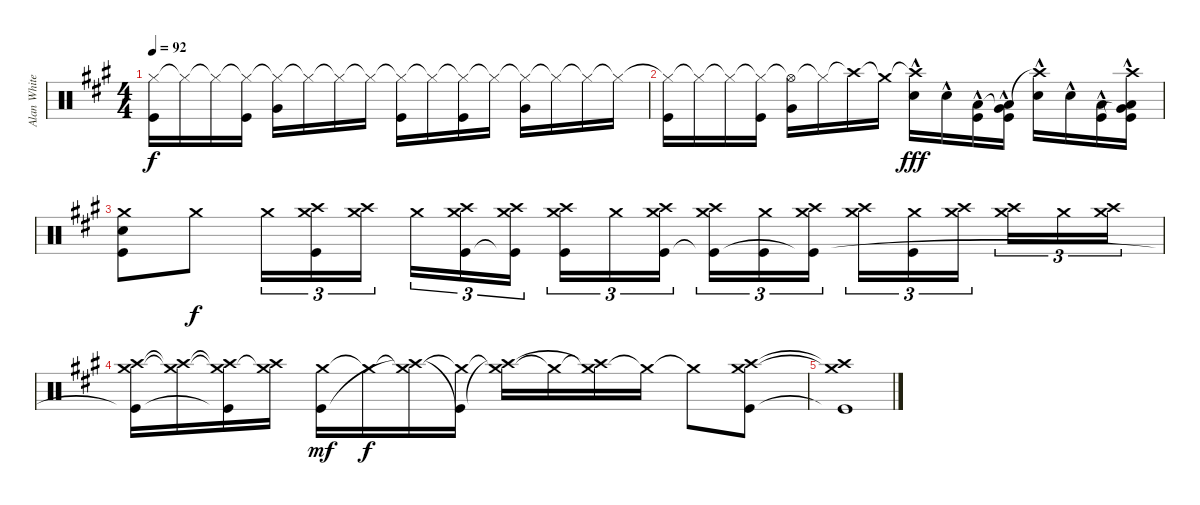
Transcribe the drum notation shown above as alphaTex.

\track ("Alan White" "Alan White") {instrument percussion}
\staff {score}
\articulation defaults
\ts (4 4)
\tempo 92
\clef neutral
\ks a
("Hi-Hat (closed)"{t} "Kick (hit)").16{dy f} "Hi-Hat (closed)"{t}.16 "Hi-Hat (closed)"{t}.16 ("Hi-Hat (closed)"{t} "Kick (hit)").16 ("Hi-Hat (closed)"{t} "Very Low Tom (hit)").16 "Hi-Hat (closed)"{t}.16 "Hi-Hat (closed)"{t}.16 "Hi-Hat (closed)"{t}.16 ("Hi-Hat (closed)"{t} "Kick (hit)").16 "Hi-Hat (closed)"{t}.16 ("Hi-Hat (closed)"{t} "Kick (hit)").16 "Hi-Hat (closed)"{t}.16 ("Hi-Hat (closed)"{t} "Very Low Tom (hit)").16 "Hi-Hat (closed)"{t}.16 "Hi-Hat (closed)"{t}.16 "Hi-Hat (closed)"{t}.16 |
("Hi-Hat (closed)"{t} "Kick (hit)").16 "Hi-Hat (closed)"{t}.16 "Hi-Hat (closed)"{t}.16 ("Hi-Hat (closed)"{t} "Kick (hit)").16 ("Hi-Hat (open)"{t} "Very Low Tom (hit)").16 "Hi-Hat (closed)"{t}.16 "Crash high (hit)"{t}.16 "Crash medium (hit)"{t}.16 ("Crash high (hit)"{t} "Snare (hit) 2"{hac}).16{dy fff} "Snare (hit) 2"{hac}.16 ("Low Floor Tom (hit)" "Kick (hit)"{hac}).16 ("Very Low Tom (hit)"{t} "Low Floor Tom (hit)" "Kick (hit)"{hac}).16 ("Crash high (hit)"{t} "Snare (hit) 2"{hac}).16 "Snare (hit) 2"{hac}.16 ("Low Floor Tom (hit)" "Kick (hit)"{hac}).16 ("Crash high (hit)" "Very Low Tom (hit)"{t} "Low Floor Tom (hit)" "Kick (hit)"{hac}).16 |
("Crash medium (hit)" "Snare (hit) 2" "Kick (hit)").8 "Crash medium (hit)".8{dy f} "Crash medium (hit)".16{tu (3 2)} ("Crash medium (hit)" "Crash high (hit)" "Kick (hit)").16{tu (3 2)} ("Crash medium (hit)" "Crash high (hit)").16{tu (3 2) beam splitsecondary} "Crash medium (hit)".16{tu (3 2)} ("Crash medium (hit)" "Crash high (hit)" "Kick (hit)").16{tu (3 2)} ("Crash medium (hit)" "Crash high (hit)" "Kick (hit)"{t}).16{tu (3 2)} ("Crash medium (hit)" "Crash high (hit)" "Kick (hit)").16{tu (3 2)} "Crash medium (hit)".16{tu (3 2)} ("Crash medium (hit)" "Crash high (hit)" "Kick (hit)").16{tu (3 2) beam splitsecondary} ("Crash medium (hit)" "Crash high (hit)" "Kick (hit)"{t}).16{tu (3 2)} ("Crash medium (hit)" "Kick (hit)").16{tu (3 2)} ("Crash medium (hit)" "Crash high (hit)" "Kick (hit)"{t}).16{tu (3 2)} ("Crash medium (hit)" "Crash high (hit)").16{tu (3 2)} ("Crash medium (hit)" "Kick (hit)").16{tu (3 2)} ("Crash medium (hit)" "Crash high (hit)").16{tu (3 2) beam splitsecondary} ("Crash medium (hit)" "Crash high (hit)").16{tu (3 2)} "Crash medium (hit)".16{tu (3 2)} ("Crash medium (hit)" "Crash high (hit)").16{tu (3 2)} |
("Crash medium (hit)" "Crash high (hit)" "Kick (hit)"{t}).16 ("Crash medium (hit)"{t} "Crash high (hit)"{t}).16 ("Crash medium (hit)"{t} "Crash high (hit)"{t} "Kick (hit)"{t}).16 ("Crash medium (hit)"{t} "Crash high (hit)").16 ("Crash medium (hit)" "Kick (hit)").16{dy mf} "Crash medium (hit)"{t}.16{dy f} ("Crash medium (hit)"{t} "Crash high (hit)"{t}).16 ("Crash medium (hit)"{t} "Kick (hit)"{t}).16 ("Crash medium (hit)"{t} "Crash high (hit)"{t}).16 "Crash medium (hit)"{t}.16 ("Crash medium (hit)"{t} "Crash high (hit)"{t}).16 "Crash medium (hit)"{t}.16 "Crash medium (hit)"{t}.8 ("Crash medium (hit)" "Crash high (hit)" "Kick (hit)").8 |
("Crash medium (hit)"{t} "Crash high (hit)"{t} "Kick (hit)"{t}).1
